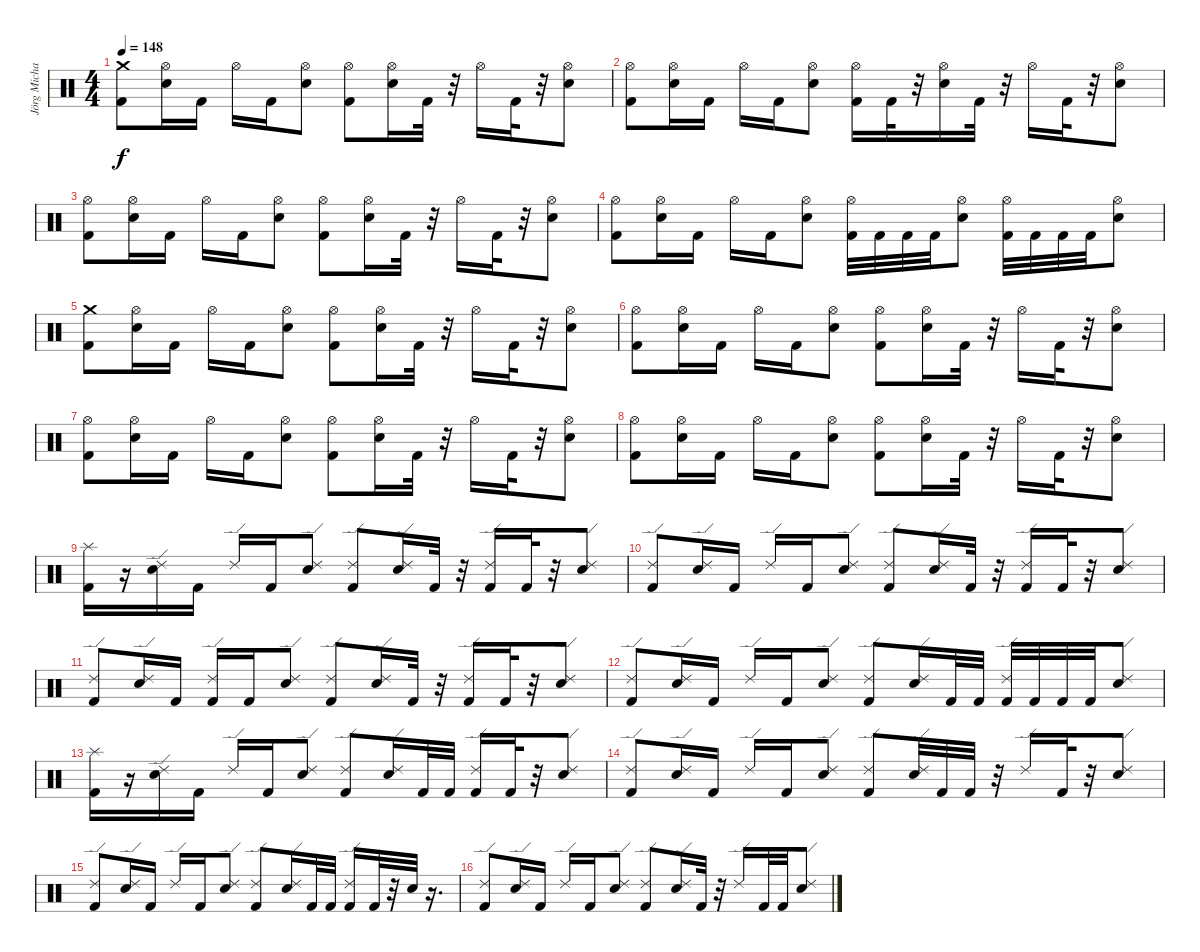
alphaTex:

\track ("Jörg Michael" "Jörg Micha") {instrument percussion}
\staff {score}
\articulation defaults
\ts (4 4)
\tempo 148
\clef neutral
\ks c
("Crash medium (hit)" "Kick (hit) 2").8{dy f} ("Hi-Hat (open)" "Electric Snare (hit)").16 "Kick (hit) 2".16 "Hi-Hat (open)".16 "Kick (hit) 2".16 ("Hi-Hat (open)" "Electric Snare (hit)").8 ("Hi-Hat (open)" "Kick (hit) 2").8 ("Hi-Hat (open)" "Electric Snare (hit)").16 "Kick (hit) 2".32 r.32 "Hi-Hat (open)".16 "Kick (hit) 2".32 r.32 ("Hi-Hat (open)" "Electric Snare (hit)").8 |
("Hi-Hat (open)" "Kick (hit) 2").8 ("Hi-Hat (open)" "Electric Snare (hit)").16 "Kick (hit) 2".16 "Hi-Hat (open)".16 "Kick (hit) 2".16 ("Hi-Hat (open)" "Electric Snare (hit)").8 ("Hi-Hat (open)" "Kick (hit) 2").16 "Kick (hit) 2".32 r.32 ("Hi-Hat (open)" "Electric Snare (hit)").16 "Kick (hit) 2".32 r.32 "Hi-Hat (open)".16 "Kick (hit) 2".32 r.32 ("Hi-Hat (open)" "Electric Snare (hit)").8 |
("Hi-Hat (open)" "Kick (hit) 2").8 ("Hi-Hat (open)" "Electric Snare (hit)").16 "Kick (hit) 2".16 "Hi-Hat (open)".16 "Kick (hit) 2".16 ("Hi-Hat (open)" "Electric Snare (hit)").8 ("Hi-Hat (open)" "Kick (hit) 2").8 ("Hi-Hat (open)" "Electric Snare (hit)").16 "Kick (hit) 2".32 r.32 "Hi-Hat (open)".16 "Kick (hit) 2".32 r.32 ("Hi-Hat (open)" "Electric Snare (hit)").8 |
("Hi-Hat (open)" "Kick (hit) 2").8 ("Hi-Hat (open)" "Electric Snare (hit)").16 "Kick (hit) 2".16 "Hi-Hat (open)".16 "Kick (hit) 2".16 ("Hi-Hat (open)" "Electric Snare (hit)").8 ("Hi-Hat (open)" "Kick (hit) 2").32 "Kick (hit) 2".32 "Kick (hit) 2".32 "Kick (hit) 2".32 ("Hi-Hat (open)" "Electric Snare (hit)").8 ("Kick (hit) 2" "Hi-Hat (open)").32 "Kick (hit) 2".32 "Kick (hit) 2".32 "Kick (hit) 2".32 ("Hi-Hat (open)" "Electric Snare (hit)").8 |
("Crash medium (hit)" "Kick (hit) 2").8 ("Hi-Hat (open)" "Electric Snare (hit)").16 "Kick (hit) 2".16 "Hi-Hat (open)".16 "Kick (hit) 2".16 ("Hi-Hat (open)" "Electric Snare (hit)").8 ("Hi-Hat (open)" "Kick (hit) 2").8 ("Hi-Hat (open)" "Electric Snare (hit)").16 "Kick (hit) 2".32 r.32 "Hi-Hat (open)".16 "Kick (hit) 2".32 r.32 ("Hi-Hat (open)" "Electric Snare (hit)").8 |
("Hi-Hat (open)" "Kick (hit) 2").8 ("Hi-Hat (open)" "Electric Snare (hit)").16 "Kick (hit) 2".16 "Hi-Hat (open)".16 "Kick (hit) 2".16 ("Hi-Hat (open)" "Electric Snare (hit)").8 ("Hi-Hat (open)" "Kick (hit) 2").8 ("Hi-Hat (open)" "Electric Snare (hit)").16 "Kick (hit) 2".32 r.32 "Hi-Hat (open)".16 "Kick (hit) 2".32 r.32 ("Hi-Hat (open)" "Electric Snare (hit)").8 |
("Hi-Hat (open)" "Kick (hit) 2").8 ("Hi-Hat (open)" "Electric Snare (hit)").16 "Kick (hit) 2".16 "Hi-Hat (open)".16 "Kick (hit) 2".16 ("Hi-Hat (open)" "Electric Snare (hit)").8 ("Hi-Hat (open)" "Kick (hit) 2").8 ("Hi-Hat (open)" "Electric Snare (hit)").16 "Kick (hit) 2".32 r.32 "Hi-Hat (open)".16 "Kick (hit) 2".32 r.32 ("Hi-Hat (open)" "Electric Snare (hit)").8 |
("Hi-Hat (open)" "Kick (hit) 2").8 ("Hi-Hat (open)" "Electric Snare (hit)").16 "Kick (hit) 2".16 "Hi-Hat (open)".16 "Kick (hit) 2".16 ("Hi-Hat (open)" "Electric Snare (hit)").8 ("Hi-Hat (open)" "Kick (hit) 2").8 ("Hi-Hat (open)" "Electric Snare (hit)").16 "Kick (hit) 2".32 r.32 "Hi-Hat (open)".16 "Kick (hit) 2".32 r.32 ("Hi-Hat (open)" "Electric Snare (hit)").8 |
("Splash (hit)" "Kick (hit) 2").16 r.16 ("Electric Snare (hit)" "Ride (edge) 2").16 "Kick (hit) 2".16 "Ride (edge) 2".16 "Kick (hit) 2".16 ("Ride (edge) 2" "Electric Snare (hit)").8 ("Ride (edge) 2" "Kick (hit) 2").8 ("Ride (edge) 2" "Electric Snare (hit)").16 "Kick (hit) 2".32 r.32 ("Kick (hit) 2" "Ride (edge) 2").16 "Kick (hit) 2".32 r.32 ("Electric Snare (hit)" "Ride (edge) 2").8 |
("Ride (edge) 2" "Kick (hit) 2").8 ("Ride (edge) 2" "Electric Snare (hit)").16 "Kick (hit) 2".16 "Ride (edge) 2".16 "Kick (hit) 2".16 ("Electric Snare (hit)" "Ride (edge) 2").8 ("Kick (hit) 2" "Ride (edge) 2").8 ("Ride (edge) 2" "Electric Snare (hit)").16 "Kick (hit) 2".32 r.32 ("Kick (hit) 2" "Ride (edge) 2").16 "Kick (hit) 2".32 r.32 ("Electric Snare (hit)" "Ride (edge) 2").8 |
("Ride (edge) 2" "Kick (hit) 2").8 ("Electric Snare (hit)" "Ride (edge) 2").16 "Kick (hit) 2".16 ("Kick (hit) 2" "Ride (edge) 2").16 "Kick (hit) 2".16 ("Ride (edge) 2" "Electric Snare (hit)").8 ("Kick (hit) 2" "Ride (edge) 2").8 ("Ride (edge) 2" "Electric Snare (hit)").16 "Kick (hit) 2".32 r.32 ("Kick (hit) 2" "Ride (edge) 2").16 "Kick (hit) 2".32 r.32 ("Ride (edge) 2" "Electric Snare (hit)").8 |
("Kick (hit) 2" "Ride (edge) 2").8 ("Electric Snare (hit)" "Ride (edge) 2").16 "Kick (hit) 2".16 "Ride (edge) 2".16 "Kick (hit) 2".16 ("Electric Snare (hit)" "Ride (edge) 2").8 ("Kick (hit) 2" "Ride (edge) 2").8 ("Ride (edge) 2" "Electric Snare (hit)").16 "Kick (hit) 2".32 "Kick (hit) 2".32 ("Kick (hit) 2" "Ride (edge) 2").32 "Kick (hit) 2".32 "Kick (hit) 2".32 "Kick (hit) 2".32 ("Ride (edge) 2" "Electric Snare (hit)").8 |
("Splash (hit)" "Kick (hit) 2").16 r.16 ("Ride (edge) 2" "Electric Snare (hit)").16 "Kick (hit) 2".16 "Ride (edge) 2".16 "Kick (hit) 2".16 ("Electric Snare (hit)" "Ride (edge) 2").8 ("Kick (hit) 2" "Ride (edge) 2").8 ("Electric Snare (hit)" "Ride (edge) 2").16 "Kick (hit) 2".32 "Kick (hit) 2".32 ("Kick (hit) 2" "Ride (edge) 2").16 "Kick (hit) 2".32 r.32 ("Electric Snare (hit)" "Ride (edge) 2").8 |
("Ride (edge) 2" "Kick (hit) 2").8 ("Electric Snare (hit)" "Ride (edge) 2").16 "Kick (hit) 2".16 "Ride (edge) 2".16 "Kick (hit) 2".16 ("Ride (edge) 2" "Electric Snare (hit)").8 ("Ride (edge) 2" "Kick (hit) 2").8 ("Electric Snare (hit)" "Ride (edge) 2").32 "Kick (hit) 2".32 "Kick (hit) 2".32 r.32 "Ride (edge) 2".16 "Kick (hit) 2".32 r.32 ("Ride (edge) 2" "Electric Snare (hit)").8 |
("Ride (edge) 2" "Kick (hit) 2").8 ("Ride (edge) 2" "Electric Snare (hit)").16 "Kick (hit) 2".16 "Ride (edge) 2".16 "Kick (hit) 2".16 ("Ride (edge) 2" "Electric Snare (hit)").8 ("Ride (edge) 2" "Kick (hit) 2").8 ("Electric Snare (hit)" "Ride (edge) 2").16 "Kick (hit) 2".32 "Kick (hit) 2".32 ("Kick (hit) 2" "Ride (edge) 2").16 "Kick (hit) 2".32 r.32 "Electric Snare (hit)".32 r.16{d} |
("Kick (hit) 2" "Ride (edge) 2").8 ("Electric Snare (hit)" "Ride (edge) 2").16 "Kick (hit) 2".16 "Ride (edge) 2".16 "Kick (hit) 2".16 ("Ride (edge) 2" "Electric Snare (hit)").8 ("Kick (hit) 2" "Ride (edge) 2").8 ("Electric Snare (hit)" "Ride (edge) 2").16 "Kick (hit) 2".32 r.32 "Ride (edge) 2".16 "Kick (hit) 2".32 "Kick (hit) 2".32 ("Electric Snare (hit)" "Ride (edge) 2").8
